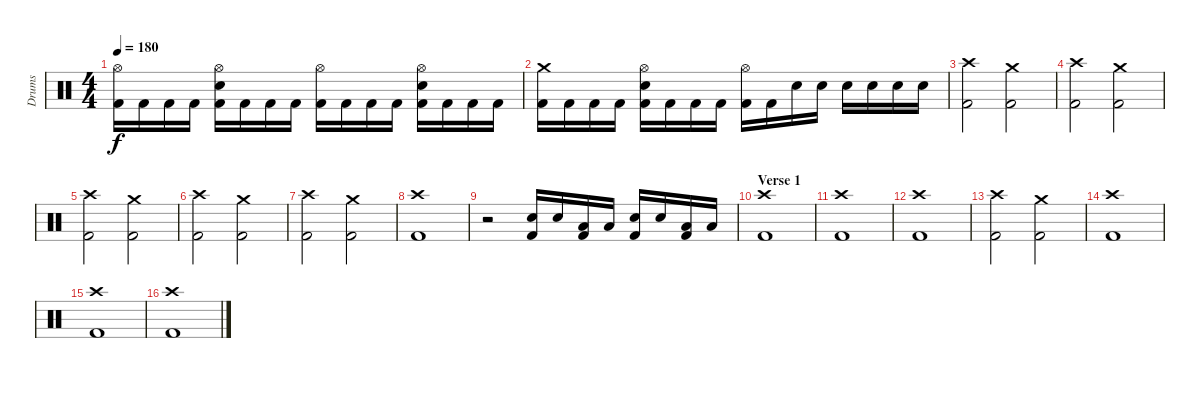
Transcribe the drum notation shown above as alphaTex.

\track ("Drums" "Drums") {instrument percussion}
\staff {score}
\articulation defaults
\ts (4 4)
\tempo 180
\clef neutral
\ks c
("Hi-Hat (open)" "Kick (hit) 2").16{dy f} "Kick (hit) 2".16 "Kick (hit) 2".16 "Kick (hit) 2".16 ("Hi-Hat (open)" "Electric Snare (hit)" "Kick (hit) 2").16 "Kick (hit) 2".16 "Kick (hit) 2".16 "Kick (hit) 2".16 ("Hi-Hat (open)" "Kick (hit) 2").16 "Kick (hit) 2".16 "Kick (hit) 2".16 "Kick (hit) 2".16 ("Hi-Hat (open)" "Electric Snare (hit)" "Kick (hit) 2").16 "Kick (hit) 2".16 "Kick (hit) 2".16 "Kick (hit) 2".16 |
("Crash medium (hit)" "Kick (hit) 2").16 "Kick (hit) 2".16 "Kick (hit) 2".16 "Kick (hit) 2".16 ("Hi-Hat (open)" "Electric Snare (hit)" "Kick (hit) 2").16 "Kick (hit) 2".16 "Kick (hit) 2".16 "Kick (hit) 2".16 ("Hi-Hat (open)" "Kick (hit) 2").16 "Kick (hit) 2".16 "Electric Snare (hit)".16 "Electric Snare (hit)".16 "Electric Snare (hit)".16 "Electric Snare (hit)".16 "Electric Snare (hit)".16 "Electric Snare (hit)".16 |
("Crash high (hit)" "Kick (hit) 2").2 ("Crash medium (hit)" "Kick (hit) 2").2 |
("Crash high (hit)" "Kick (hit) 2").2 ("Crash medium (hit)" "Kick (hit) 2").2 |
("Crash high (hit)" "Kick (hit) 2").2 ("Crash medium (hit)" "Kick (hit) 2").2 |
("Crash high (hit)" "Kick (hit) 2").2 ("Crash medium (hit)" "Kick (hit) 2").2 |
("Crash high (hit)" "Kick (hit) 2").2 ("Crash medium (hit)" "Kick (hit) 2").2 |
("Crash high (hit)" "Kick (hit) 2").1 |
r.2 ("Electric Snare (hit)" "Kick (hit) 2").16 "Electric Snare (hit)".16 ("Low Tom (hit)" "Kick (hit) 2").16 "Low Tom (hit)".16 ("Electric Snare (hit)" "Kick (hit) 2").16 "Electric Snare (hit)".16 ("Low Tom (hit)" "Kick (hit) 2").16 "Low Tom (hit)".16 |
\section ("" "Verse 1")
("Crash high (hit)" "Kick (hit) 2").1 |
("Crash high (hit)" "Kick (hit) 2").1 |
("Crash high (hit)" "Kick (hit) 2").1 |
("Crash high (hit)" "Kick (hit) 2").2 ("Crash medium (hit)" "Kick (hit) 2").2 |
("Crash high (hit)" "Kick (hit) 2").1 |
("Crash high (hit)" "Kick (hit) 2").1 |
("Crash high (hit)" "Kick (hit) 2").1
